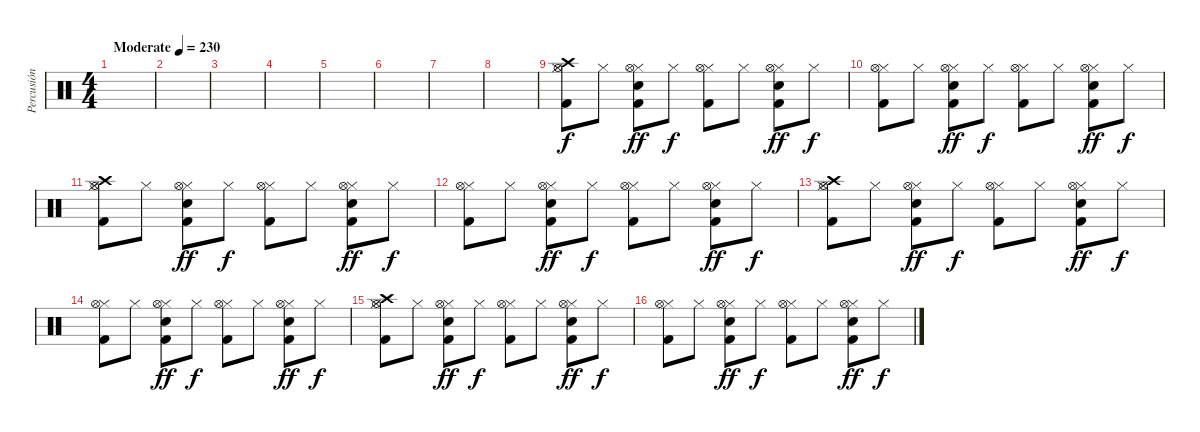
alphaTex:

\track ("Percusión" "Percusión") {instrument percussion}
\staff {score}
\articulation defaults
\ts (4 4)
\tempo (230 "Moderate")
\clef neutral
\ks c
|
|
|
|
|
|
|
|
("Crash high (hit)" "Hi-Hat (closed)" "Kick (hit) 2" "Hi-Hat (open)").8 "Hi-Hat (closed)".8 ("Hi-Hat (closed)" "Snare (hit) 2" "Kick (hit) 2" "Hi-Hat (open)").8{dy ff} "Hi-Hat (closed)".8{dy f} ("Hi-Hat (closed)" "Kick (hit) 2" "Hi-Hat (open)").8 "Hi-Hat (closed)".8 ("Hi-Hat (closed)" "Snare (hit) 2" "Kick (hit) 2" "Hi-Hat (open)").8{dy ff} "Hi-Hat (closed)".8{dy f} |
("Hi-Hat (closed)" "Kick (hit) 2" "Hi-Hat (open)").8 "Hi-Hat (closed)".8 ("Hi-Hat (closed)" "Snare (hit) 2" "Kick (hit) 2" "Hi-Hat (open)").8{dy ff} "Hi-Hat (closed)".8{dy f} ("Hi-Hat (closed)" "Kick (hit) 2" "Hi-Hat (open)").8 "Hi-Hat (closed)".8 ("Hi-Hat (closed)" "Snare (hit) 2" "Kick (hit) 2" "Hi-Hat (open)").8{dy ff} "Hi-Hat (closed)".8{dy f} |
("Crash high (hit)" "Hi-Hat (closed)" "Kick (hit) 2" "Hi-Hat (open)").8 "Hi-Hat (closed)".8 ("Hi-Hat (closed)" "Snare (hit) 2" "Kick (hit) 2" "Hi-Hat (open)").8{dy ff} "Hi-Hat (closed)".8{dy f} ("Hi-Hat (closed)" "Kick (hit) 2" "Hi-Hat (open)").8 "Hi-Hat (closed)".8 ("Hi-Hat (closed)" "Snare (hit) 2" "Kick (hit) 2" "Hi-Hat (open)").8{dy ff} "Hi-Hat (closed)".8{dy f} |
("Hi-Hat (closed)" "Kick (hit) 2" "Hi-Hat (open)").8 "Hi-Hat (closed)".8 ("Hi-Hat (closed)" "Snare (hit) 2" "Kick (hit) 2" "Hi-Hat (open)").8{dy ff} "Hi-Hat (closed)".8{dy f} ("Hi-Hat (closed)" "Kick (hit) 2" "Hi-Hat (open)").8 "Hi-Hat (closed)".8 ("Hi-Hat (closed)" "Snare (hit) 2" "Kick (hit) 2" "Hi-Hat (open)").8{dy ff} "Hi-Hat (closed)".8{dy f} |
("Crash high (hit)" "Hi-Hat (closed)" "Kick (hit) 2" "Hi-Hat (open)").8 "Hi-Hat (closed)".8 ("Hi-Hat (closed)" "Snare (hit) 2" "Kick (hit) 2" "Hi-Hat (open)").8{dy ff} "Hi-Hat (closed)".8{dy f} ("Hi-Hat (closed)" "Kick (hit) 2" "Hi-Hat (open)").8 "Hi-Hat (closed)".8 ("Hi-Hat (closed)" "Snare (hit) 2" "Kick (hit) 2" "Hi-Hat (open)").8{dy ff} "Hi-Hat (closed)".8{dy f} |
("Hi-Hat (closed)" "Kick (hit) 2" "Hi-Hat (open)").8 "Hi-Hat (closed)".8 ("Hi-Hat (closed)" "Snare (hit) 2" "Kick (hit) 2" "Hi-Hat (open)").8{dy ff} "Hi-Hat (closed)".8{dy f} ("Hi-Hat (closed)" "Kick (hit) 2" "Hi-Hat (open)").8 "Hi-Hat (closed)".8 ("Hi-Hat (closed)" "Snare (hit) 2" "Kick (hit) 2" "Hi-Hat (open)").8{dy ff} "Hi-Hat (closed)".8{dy f} |
("Crash high (hit)" "Hi-Hat (closed)" "Kick (hit) 2" "Hi-Hat (open)").8 "Hi-Hat (closed)".8 ("Hi-Hat (closed)" "Snare (hit) 2" "Kick (hit) 2" "Hi-Hat (open)").8{dy ff} "Hi-Hat (closed)".8{dy f} ("Hi-Hat (closed)" "Kick (hit) 2" "Hi-Hat (open)").8 "Hi-Hat (closed)".8 ("Hi-Hat (closed)" "Snare (hit) 2" "Kick (hit) 2" "Hi-Hat (open)").8{dy ff} "Hi-Hat (closed)".8{dy f} |
("Hi-Hat (closed)" "Kick (hit) 2" "Hi-Hat (open)").8 "Hi-Hat (closed)".8 ("Hi-Hat (closed)" "Snare (hit) 2" "Kick (hit) 2" "Hi-Hat (open)").8{dy ff} "Hi-Hat (closed)".8{dy f} ("Hi-Hat (closed)" "Kick (hit) 2" "Hi-Hat (open)").8 "Hi-Hat (closed)".8 ("Hi-Hat (closed)" "Snare (hit) 2" "Kick (hit) 2" "Hi-Hat (open)").8{dy ff} "Hi-Hat (closed)".8{dy f}
